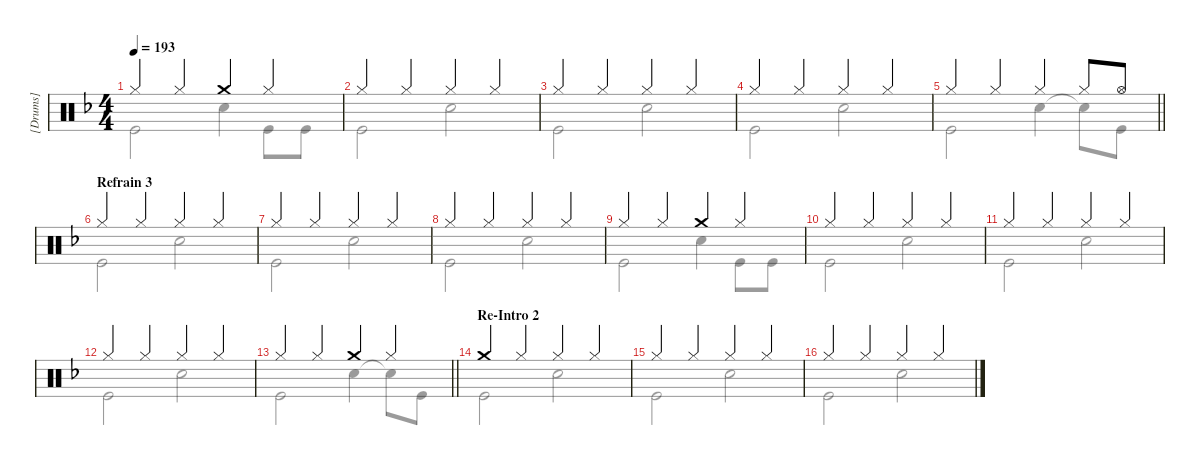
\hideDynamics
\bracketExtendMode groupsimilarinstruments
\firstSystemTrackNameMode fullname
\otherSystemsTrackNameMode fullname
\otherSystemsTrackNameOrientation horizontal
\track ("[Drums]" "Drums") {instrument percussion}
\staff {score}
\articulation defaults
\voice
\ts (4 4)
\tempo 193
\clef neutral
\ks f "Hi-Hat (closed)".4{dy ff} "Hi-Hat (closed)".4 "Crash medium (hit)".4 "Hi-Hat (closed)".4
|
"Hi-Hat (closed)".4 "Hi-Hat (closed)".4 "Hi-Hat (closed)".4 "Hi-Hat (closed)".4 |
"Hi-Hat (closed)".4 "Hi-Hat (closed)".4 "Hi-Hat (closed)".4 "Hi-Hat (closed)".4 |
"Hi-Hat (closed)".4 "Hi-Hat (closed)".4 "Hi-Hat (closed)".4 "Hi-Hat (closed)".4 |
\barLineRight lightlight "Hi-Hat (closed)".4 "Hi-Hat (closed)".4 "Hi-Hat (closed)".4 "Hi-Hat (closed)".8 "Hi-Hat (open)".8
|
\section ("" "Refrain 3")
"Hi-Hat (closed)".4 "Hi-Hat (closed)".4 "Hi-Hat (closed)".4 "Hi-Hat (closed)".4 |
"Hi-Hat (closed)".4 "Hi-Hat (closed)".4 "Hi-Hat (closed)".4 "Hi-Hat (closed)".4 |
"Hi-Hat (closed)".4 "Hi-Hat (closed)".4 "Hi-Hat (closed)".4 "Hi-Hat (closed)".4 |
"Hi-Hat (closed)".4 "Hi-Hat (closed)".4 "Crash medium (hit)".4 "Hi-Hat (closed)".4 |
"Hi-Hat (closed)".4 "Hi-Hat (closed)".4 "Hi-Hat (closed)".4 "Hi-Hat (closed)".4 |
"Hi-Hat (closed)".4 "Hi-Hat (closed)".4 "Hi-Hat (closed)".4 "Hi-Hat (closed)".4 |
"Hi-Hat (closed)".4 "Hi-Hat (closed)".4 "Hi-Hat (closed)".4 "Hi-Hat (closed)".4 |
\barLineRight lightlight "Hi-Hat (closed)".4 "Hi-Hat (closed)".4 "Crash medium (hit)".4 "Hi-Hat (closed)".4
|
\section ("" "Re-Intro 2")
"Crash medium (hit)".4 "Hi-Hat (closed)".4 "Hi-Hat (closed)".4 "Hi-Hat (closed)".4 |
"Hi-Hat (closed)".4 "Hi-Hat (closed)".4 "Hi-Hat (closed)".4 "Hi-Hat (closed)".4 |
"Hi-Hat (closed)".4 "Hi-Hat (closed)".4 "Hi-Hat (closed)".4 "Hi-Hat (closed)".4
\voice
\clef neutral
\ottava regular
\simile none
\ks f "Kick (hit)".2{dy f} "Snare (hit) 2".4 "Kick (hit)".8 "Kick (hit)".8
|
"Kick (hit)".2 "Snare (hit) 2".2 |
"Kick (hit)".2 "Snare (hit) 2".2 |
"Kick (hit)".2 "Snare (hit) 2".2 |
\barLineRight lightlight "Kick (hit)".2 "Snare (hit) 2".4 "Snare (hit) 2"{t}.8 "Kick (hit)".8
|
"Kick (hit)".2 "Snare (hit) 2".2 |
"Kick (hit)".2 "Snare (hit) 2".2 |
"Kick (hit)".2 "Snare (hit) 2".2 |
"Kick (hit)".2 "Snare (hit) 2".4 "Kick (hit)".8 "Kick (hit)".8 |
"Kick (hit)".2 "Snare (hit) 2".2 |
"Kick (hit)".2 "Snare (hit) 2".2 |
"Kick (hit)".2 "Snare (hit) 2".2 |
\barLineRight lightlight "Kick (hit)".2 "Snare (hit) 2".4 "Snare (hit) 2"{t}.8 "Kick (hit)".8
|
"Kick (hit)".2 "Snare (hit) 2".2 |
"Kick (hit)".2 "Snare (hit) 2".2 |
"Kick (hit)".2 "Snare (hit) 2".2
